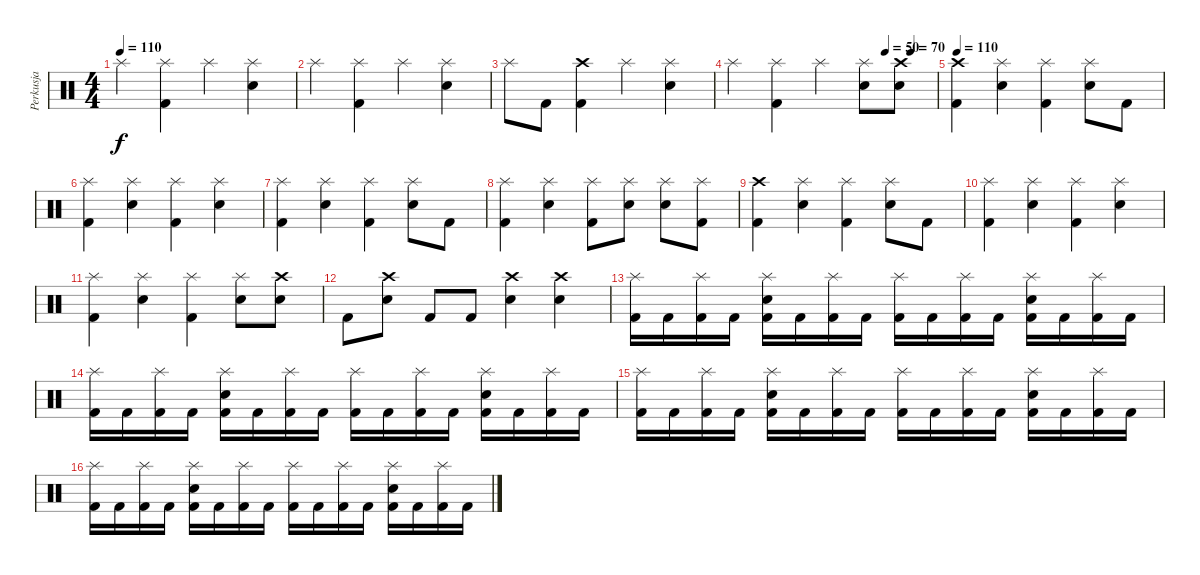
\track ("Perkusja" "Perkusja") {instrument percussion}
\staff {score}
\articulation defaults
\ts (4 4)
\tempo 110
\clef neutral
\ks c "Splash (hit)".4{dy f}
("Splash (hit)" "Kick (hit) 2").4 "Splash (hit)".4 ("Splash (hit)" "Snare (hit) 2").4 |
"Splash (hit)".4 ("Splash (hit)" "Kick (hit) 2").4 "Splash (hit)".4 ("Splash (hit)" "Snare (hit) 2").4 |
"Splash (hit)".8 "Kick (hit) 2".8 ("Crash high (hit)" "Kick (hit) 2").4 "Splash (hit)".4 ("Splash (hit)" "Snare (hit) 2").4 |
\tempo (50 0.75)
\tempo (70 0.875)
"Splash (hit)".4 ("Splash (hit)" "Kick (hit) 2").4 "Splash (hit)".4 ("Splash (hit)" "Snare (hit) 2").8 ("Crash high (hit)" "Snare (hit) 2").8 |
\tempo 110
("Crash high (hit)" "Kick (hit) 2").4 ("Splash (hit)" "Snare (hit) 2").4 ("Splash (hit)" "Kick (hit) 2").4 ("Splash (hit)" "Snare (hit) 2").8 "Kick (hit) 2".8 |
("Splash (hit)" "Kick (hit) 2").4 ("Splash (hit)" "Snare (hit) 2").4 ("Splash (hit)" "Kick (hit) 2").4 ("Splash (hit)" "Snare (hit) 2").4 |
("Splash (hit)" "Kick (hit) 2").4 ("Splash (hit)" "Snare (hit) 2").4 ("Splash (hit)" "Kick (hit) 2").4 ("Splash (hit)" "Snare (hit) 2").8 "Kick (hit) 2".8 |
("Splash (hit)" "Kick (hit) 2").4 ("Splash (hit)" "Snare (hit) 2").4 ("Splash (hit)" "Kick (hit) 2").8 ("Splash (hit)" "Snare (hit) 2").8 ("Splash (hit)" "Snare (hit) 2").8 ("Splash (hit)" "Kick (hit) 2").8 |
("Crash high (hit)" "Kick (hit) 2").4 ("Splash (hit)" "Snare (hit) 2").4 ("Splash (hit)" "Kick (hit) 2").4 ("Splash (hit)" "Snare (hit) 2").8 "Kick (hit) 2".8 |
("Splash (hit)" "Kick (hit) 2").4 ("Splash (hit)" "Snare (hit) 2").4 ("Splash (hit)" "Kick (hit) 2").4 ("Splash (hit)" "Snare (hit) 2").4 |
("Splash (hit)" "Kick (hit) 2").4 ("Splash (hit)" "Snare (hit) 2").4 ("Splash (hit)" "Kick (hit) 2").4 ("Splash (hit)" "Snare (hit) 2").8 ("Crash high (hit)" "Snare (hit) 2").8 |
"Kick (hit) 2".8 ("Crash high (hit)" "Snare (hit) 2").8 "Kick (hit) 2".8 "Kick (hit) 2".8 ("Crash high (hit)" "Snare (hit) 2").4 ("Crash high (hit)" "Snare (hit) 2").4 |
("Splash (hit)" "Kick (hit) 2").16 "Kick (hit) 2".16 ("Splash (hit)" "Kick (hit) 2").16 "Kick (hit) 2".16 ("Splash (hit)" "Snare (hit) 2" "Kick (hit) 2").16 "Kick (hit) 2".16 ("Splash (hit)" "Kick (hit) 2").16 "Kick (hit) 2".16 ("Splash (hit)" "Kick (hit) 2").16 "Kick (hit) 2".16 ("Splash (hit)" "Kick (hit) 2").16 "Kick (hit) 2".16 ("Splash (hit)" "Snare (hit) 2" "Kick (hit) 2").16 "Kick (hit) 2".16 ("Splash (hit)" "Kick (hit) 2").16 "Kick (hit) 2".16 |
("Splash (hit)" "Kick (hit) 2").16 "Kick (hit) 2".16 ("Splash (hit)" "Kick (hit) 2").16 "Kick (hit) 2".16 ("Splash (hit)" "Snare (hit) 2" "Kick (hit) 2").16 "Kick (hit) 2".16 ("Splash (hit)" "Kick (hit) 2").16 "Kick (hit) 2".16 ("Splash (hit)" "Kick (hit) 2").16 "Kick (hit) 2".16 ("Splash (hit)" "Kick (hit) 2").16 "Kick (hit) 2".16 ("Splash (hit)" "Snare (hit) 2" "Kick (hit) 2").16 "Kick (hit) 2".16 ("Splash (hit)" "Kick (hit) 2").16 "Kick (hit) 2".16 |
("Splash (hit)" "Kick (hit) 2").16 "Kick (hit) 2".16 ("Splash (hit)" "Kick (hit) 2").16 "Kick (hit) 2".16 ("Splash (hit)" "Snare (hit) 2" "Kick (hit) 2").16 "Kick (hit) 2".16 ("Splash (hit)" "Kick (hit) 2").16 "Kick (hit) 2".16 ("Splash (hit)" "Kick (hit) 2").16 "Kick (hit) 2".16 ("Splash (hit)" "Kick (hit) 2").16 "Kick (hit) 2".16 ("Splash (hit)" "Snare (hit) 2" "Kick (hit) 2").16 "Kick (hit) 2".16 ("Splash (hit)" "Kick (hit) 2").16 "Kick (hit) 2".16 |
("Splash (hit)" "Kick (hit) 2").16 "Kick (hit) 2".16 ("Splash (hit)" "Kick (hit) 2").16 "Kick (hit) 2".16 ("Splash (hit)" "Snare (hit) 2" "Kick (hit) 2").16 "Kick (hit) 2".16 ("Splash (hit)" "Kick (hit) 2").16 "Kick (hit) 2".16 ("Splash (hit)" "Kick (hit) 2").16 "Kick (hit) 2".16 ("Splash (hit)" "Kick (hit) 2").16 "Kick (hit) 2".16 ("Splash (hit)" "Snare (hit) 2" "Kick (hit) 2").16 "Kick (hit) 2".16 ("Splash (hit)" "Kick (hit) 2").16 "Kick (hit) 2".16
